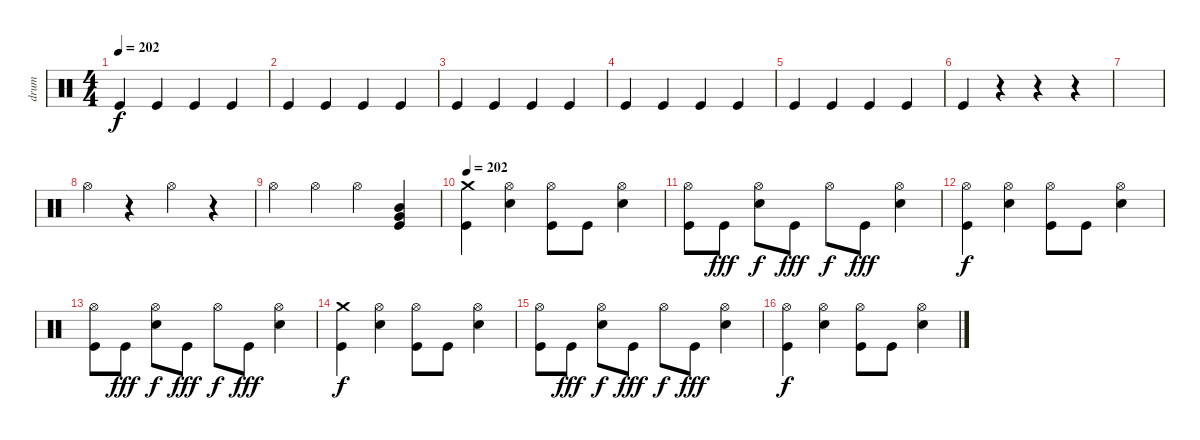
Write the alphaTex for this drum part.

\track ("drum" "drum") {instrument percussion}
\staff {score}
\articulation defaults
\ts (4 4)
\tempo 202
\clef neutral
\ks c "Kick (hit)".4{dy f} "Kick (hit)".4 "Kick (hit)".4 "Kick (hit)".4
|
"Kick (hit)".4 "Kick (hit)".4 "Kick (hit)".4 "Kick (hit)".4 |
"Kick (hit)".4 "Kick (hit)".4 "Kick (hit)".4 "Kick (hit)".4 |
"Kick (hit)".4 "Kick (hit)".4 "Kick (hit)".4 "Kick (hit)".4 |
"Kick (hit)".4 "Kick (hit)".4 "Kick (hit)".4 "Kick (hit)".4 |
"Kick (hit)".4 r.4 r.4 r.4 |
|
"Hi-Hat (open)".4 r.4 "Hi-Hat (open)".4 r.4 |
"Hi-Hat (open)".4 "Hi-Hat (open)".4 "Hi-Hat (open)".4 ("Mid Tom (hit)" "Very Low Tom (hit)" "Kick (hit)").4 |
\tempo 202
("Crash medium (hit)" "Kick (hit)").4 ("Hi-Hat (open)" "Electric Snare (hit)").4 ("Hi-Hat (open)" "Kick (hit)").8 "Kick (hit)".8 ("Hi-Hat (open)" "Electric Snare (hit)").4 |
("Hi-Hat (open)" "Kick (hit)").8 "Kick (hit)".8{dy fff} ("Hi-Hat (open)" "Electric Snare (hit)").8{dy f} "Kick (hit)".8{dy fff} "Hi-Hat (open)".8{dy f} "Kick (hit)".8{dy fff} ("Hi-Hat (open)" "Electric Snare (hit)").4 |
("Hi-Hat (open)" "Kick (hit)").4{dy f} ("Hi-Hat (open)" "Electric Snare (hit)").4 ("Hi-Hat (open)" "Kick (hit)").8 "Kick (hit)".8 ("Hi-Hat (open)" "Electric Snare (hit)").4 |
("Hi-Hat (open)" "Kick (hit)").8 "Kick (hit)".8{dy fff} ("Hi-Hat (open)" "Electric Snare (hit)").8{dy f} "Kick (hit)".8{dy fff} "Hi-Hat (open)".8{dy f} "Kick (hit)".8{dy fff} ("Hi-Hat (open)" "Electric Snare (hit)").4 |
("Crash medium (hit)" "Kick (hit)").4{dy f} ("Hi-Hat (open)" "Electric Snare (hit)").4 ("Hi-Hat (open)" "Kick (hit)").8 "Kick (hit)".8 ("Hi-Hat (open)" "Electric Snare (hit)").4 |
("Hi-Hat (open)" "Kick (hit)").8 "Kick (hit)".8{dy fff} ("Hi-Hat (open)" "Electric Snare (hit)").8{dy f} "Kick (hit)".8{dy fff} "Hi-Hat (open)".8{dy f} "Kick (hit)".8{dy fff} ("Hi-Hat (open)" "Electric Snare (hit)").4 |
("Hi-Hat (open)" "Kick (hit)").4{dy f} ("Hi-Hat (open)" "Electric Snare (hit)").4 ("Hi-Hat (open)" "Kick (hit)").8 "Kick (hit)".8 ("Hi-Hat (open)" "Electric Snare (hit)").4
